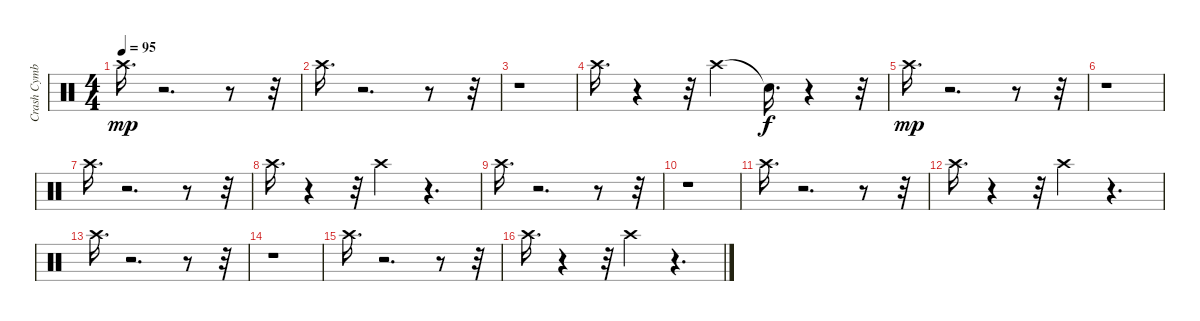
\track ("Crash Cymbal" "Crash Cymb") {instrument percussion}
\staff {score}
\articulation defaults
\ts (4 4)
\tempo 95
\clef neutral
\ks c "Crash high (hit)".16{d dy mp}
r.2{d} r.8 r.32 |
"Crash high (hit)".16{d} r.2{d} r.8 r.32 |
r.1 |
"Crash high (hit)".16{d} r.4 r.32 "Crash high (hit)".4 "Snare (hit)"{t}.16{d dy f} r.4 r.32 |
"Crash high (hit)".16{d dy mp} r.2{d} r.8 r.32 |
r.1 |
"Crash high (hit)".16{d} r.2{d} r.8 r.32 |
"Crash high (hit)".16{d} r.4 r.32 "Crash high (hit)".4 r.4{d} |
"Crash high (hit)".16{d} r.2{d} r.8 r.32 |
r.1 |
"Crash high (hit)".16{d} r.2{d} r.8 r.32 |
"Crash high (hit)".16{d} r.4 r.32 "Crash high (hit)".4 r.4{d} |
"Crash high (hit)".16{d} r.2{d} r.8 r.32 |
r.1 |
"Crash high (hit)".16{d} r.2{d} r.8 r.32 |
"Crash high (hit)".16{d} r.4 r.32 "Crash high (hit)".4 r.4{d}
